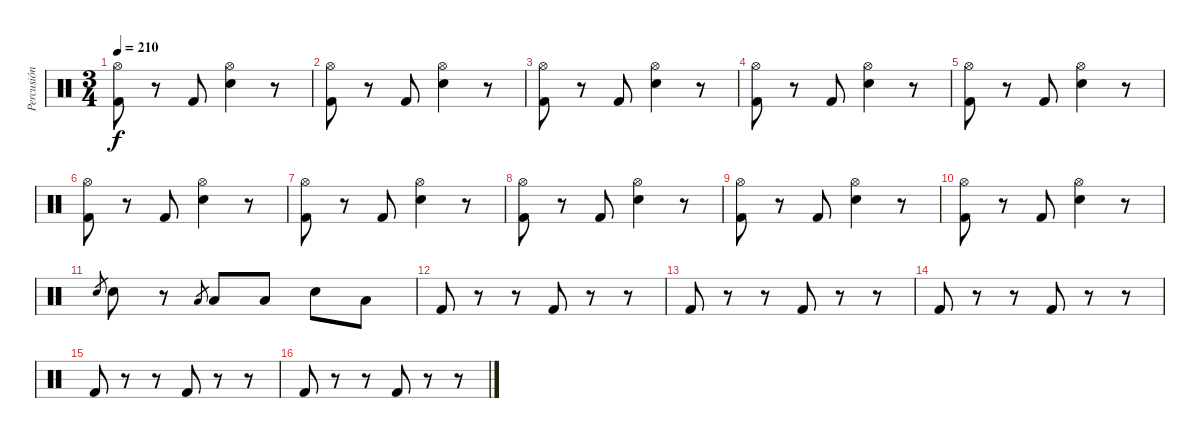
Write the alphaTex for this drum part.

\track ("Percusión" "Percusión") {instrument percussion}
\staff {score}
\articulation defaults
\ts (3 4)
\tempo 210
\clef neutral
\ks c
("Kick (hit) 2" "Hi-Hat (open)").8{dy f} r.8 "Kick (hit) 2".8 ("Electric Snare (hit)" "Hi-Hat (open)").4 r.8 |
("Kick (hit) 2" "Hi-Hat (open)").8 r.8 "Kick (hit) 2".8 ("Electric Snare (hit)" "Hi-Hat (open)").4 r.8 |
("Kick (hit) 2" "Hi-Hat (open)").8 r.8 "Kick (hit) 2".8 ("Electric Snare (hit)" "Hi-Hat (open)").4 r.8 |
("Kick (hit) 2" "Hi-Hat (open)").8 r.8 "Kick (hit) 2".8 ("Electric Snare (hit)" "Hi-Hat (open)").4 r.8 |
("Kick (hit) 2" "Hi-Hat (open)").8 r.8 "Kick (hit) 2".8 ("Electric Snare (hit)" "Hi-Hat (open)").4 r.8 |
("Kick (hit) 2" "Hi-Hat (open)").8 r.8 "Kick (hit) 2".8 ("Electric Snare (hit)" "Hi-Hat (open)").4 r.8 |
("Kick (hit) 2" "Hi-Hat (open)").8 r.8 "Kick (hit) 2".8 ("Electric Snare (hit)" "Hi-Hat (open)").4 r.8 |
("Kick (hit) 2" "Hi-Hat (open)").8 r.8 "Kick (hit) 2".8 ("Electric Snare (hit)" "Hi-Hat (open)").4 r.8 |
("Kick (hit) 2" "Hi-Hat (open)").8 r.8 "Kick (hit) 2".8 ("Electric Snare (hit)" "Hi-Hat (open)").4 r.8 |
("Kick (hit) 2" "Hi-Hat (open)").8 r.8 "Kick (hit) 2".8 ("Electric Snare (hit)" "Hi-Hat (open)").4 r.8 |
"Electric Snare (hit)".8{gr} "Electric Snare (hit)".8 r.8 "Low Tom (hit)".8{gr} "Low Tom (hit)".8 "Low Tom (hit)".8 "Electric Snare (hit)".8 "Low Tom (hit)".8 |
"Kick (hit) 2".8 r.8 r.8 "Kick (hit) 2".8 r.8 r.8 |
"Kick (hit) 2".8 r.8 r.8 "Kick (hit) 2".8 r.8 r.8 |
"Kick (hit) 2".8 r.8 r.8 "Kick (hit) 2".8 r.8 r.8 |
"Kick (hit) 2".8 r.8 r.8 "Kick (hit) 2".8 r.8 r.8 |
"Kick (hit) 2".8 r.8 r.8 "Kick (hit) 2".8 r.8 r.8
